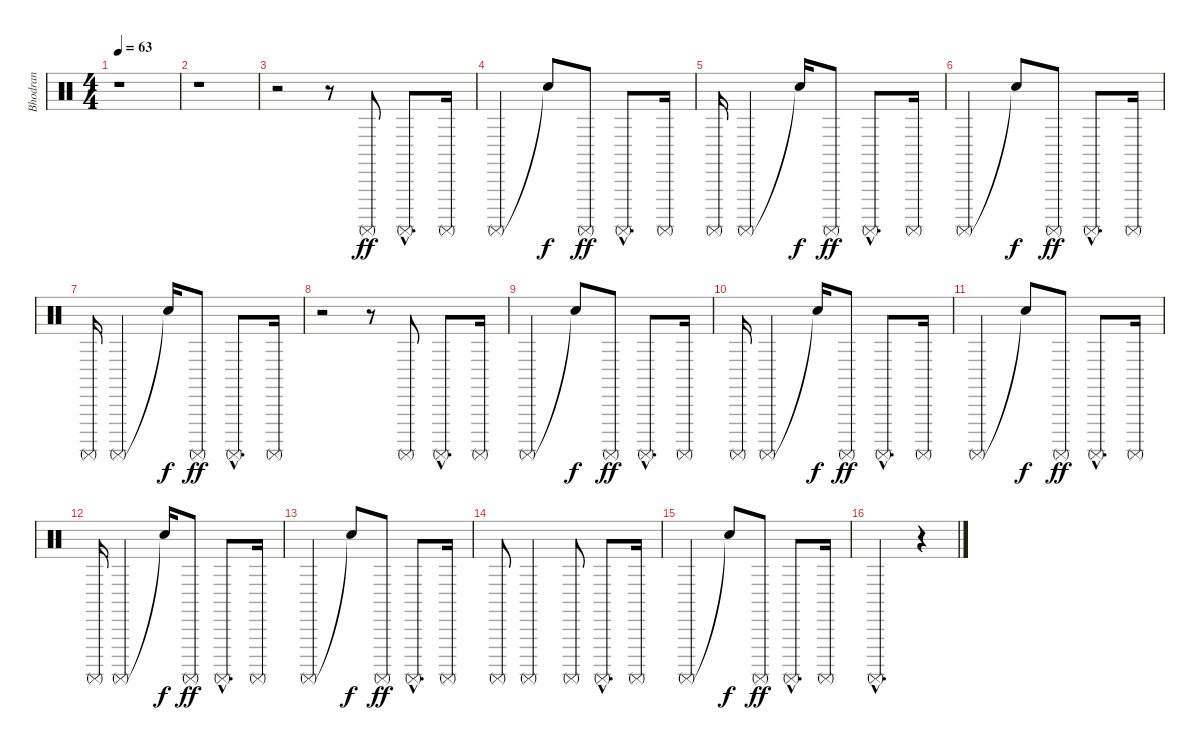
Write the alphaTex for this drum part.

\track ("Bhodran" "Bhodran") {instrument percussion}
\staff {score}
\articulation defaults
\ts (4 4)
\tempo 63
\clef neutral
\ks c
r.1{dy ff} |
r.1 |
r.2 r.8 "Surdo (mute)".8 "Surdo (mute)"{hac}.8{d} "Surdo (mute)".16 |
"Surdo (mute)".2 "Snare (hit)"{t}.8{dy f} "Surdo (mute)".8{dy ff} "Surdo (mute)"{hac}.8{d} "Surdo (mute)".16 |
"Surdo (mute)".16 "Surdo (mute)".2 "Snare (hit)"{t}.16{dy f} "Surdo (mute)".8{dy ff} "Surdo (mute)"{hac}.8{d} "Surdo (mute)".16 |
"Surdo (mute)".2 "Snare (hit)"{t}.8{dy f} "Surdo (mute)".8{dy ff} "Surdo (mute)"{hac}.8{d} "Surdo (mute)".16 |
"Surdo (mute)".16 "Surdo (mute)".2 "Snare (hit)"{t}.16{dy f} "Surdo (mute)".8{dy ff} "Surdo (mute)"{hac}.8{d} "Surdo (mute)".16 |
r.2 r.8 "Surdo (mute)".8 "Surdo (mute)"{hac}.8{d} "Surdo (mute)".16 |
"Surdo (mute)".2 "Snare (hit)"{t}.8{dy f} "Surdo (mute)".8{dy ff} "Surdo (mute)"{hac}.8{d} "Surdo (mute)".16 |
"Surdo (mute)".16 "Surdo (mute)".2 "Snare (hit)"{t}.16{dy f} "Surdo (mute)".8{dy ff} "Surdo (mute)"{hac}.8{d} "Surdo (mute)".16 |
"Surdo (mute)".2 "Snare (hit)"{t}.8{dy f} "Surdo (mute)".8{dy ff} "Surdo (mute)"{hac}.8{d} "Surdo (mute)".16 |
"Surdo (mute)".16 "Surdo (mute)".2 "Snare (hit)"{t}.16{dy f} "Surdo (mute)".8{dy ff} "Surdo (mute)"{hac}.8{d} "Surdo (mute)".16 |
"Surdo (mute)".2 "Snare (hit)"{t}.8{dy f} "Surdo (mute)".8{dy ff} "Surdo (mute)"{hac}.8{d} "Surdo (mute)".16 |
"Surdo (mute)".8 "Surdo (mute)".2 "Surdo (mute)".8 "Surdo (mute)"{hac}.8{d} "Surdo (mute)".16 |
"Surdo (mute)".2 "Snare (hit)"{t}.8{dy f} "Surdo (mute)".8{dy ff} "Surdo (mute)"{hac}.8{d} "Surdo (mute)".16 |
"Surdo (mute)"{hac}.2{d} r.4
